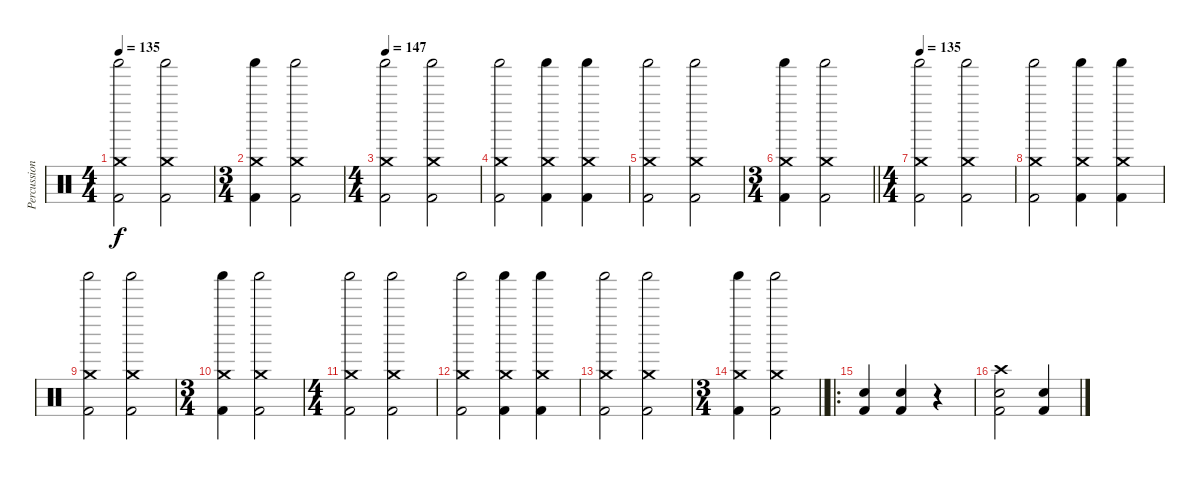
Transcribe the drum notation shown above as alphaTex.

\track ("Percussioni" "Percussion") {instrument percussion}
\staff {score}
\articulation defaults
\ts (4 4)
\tempo 135
\clef neutral
\ks c
("Kick (hit) 2" "Shaker (hit)" "Crash medium (hit)").2{dy f} ("Kick (hit) 2" "Shaker (hit)" "Crash medium (hit)").2 |
\ts (3 4)
("Kick (hit) 2" "Shaker (hit)" "Crash medium (hit)").4 ("Kick (hit) 2" "Shaker (hit)" "Crash medium (hit)").2 |
\ts (4 4)
\tempo 147
("Kick (hit) 2" "Shaker (hit)" "Crash medium (hit)").2 ("Kick (hit) 2" "Shaker (hit)" "Crash medium (hit)").2 |
("Kick (hit) 2" "Shaker (hit)" "Crash medium (hit)").2 ("Kick (hit) 2" "Shaker (hit)" "Crash medium (hit)").4 ("Kick (hit) 2" "Shaker (hit)" "Crash medium (hit)").4 |
("Kick (hit) 2" "Shaker (hit)" "Crash medium (hit)").2 ("Kick (hit) 2" "Shaker (hit)" "Crash medium (hit)").2 |
\ts (3 4)
\barLineRight lightlight
("Kick (hit) 2" "Shaker (hit)" "Crash medium (hit)").4 ("Kick (hit) 2" "Shaker (hit)" "Crash medium (hit)").2 |
\ts (4 4)
\tempo 135
("Kick (hit) 2" "Shaker (hit)" "Crash medium (hit)").2 ("Kick (hit) 2" "Shaker (hit)" "Crash medium (hit)").2 |
("Kick (hit) 2" "Shaker (hit)" "Crash medium (hit)").2 ("Kick (hit) 2" "Shaker (hit)" "Crash medium (hit)").4 ("Kick (hit) 2" "Shaker (hit)" "Crash medium (hit)").4 |
("Kick (hit) 2" "Shaker (hit)" "Crash medium (hit)").2 ("Kick (hit) 2" "Shaker (hit)" "Crash medium (hit)").2 |
\ts (3 4)
("Kick (hit) 2" "Shaker (hit)" "Crash medium (hit)").4 ("Kick (hit) 2" "Shaker (hit)" "Crash medium (hit)").2 |
\ts (4 4)
("Kick (hit) 2" "Shaker (hit)" "Crash medium (hit)").2 ("Kick (hit) 2" "Shaker (hit)" "Crash medium (hit)").2 |
("Kick (hit) 2" "Shaker (hit)" "Crash medium (hit)").2 ("Kick (hit) 2" "Shaker (hit)" "Crash medium (hit)").4 ("Kick (hit) 2" "Shaker (hit)" "Crash medium (hit)").4 |
("Kick (hit) 2" "Shaker (hit)" "Crash medium (hit)").2 ("Kick (hit) 2" "Shaker (hit)" "Crash medium (hit)").2 |
\ts (3 4)
\barLineRight lightlight
("Kick (hit) 2" "Shaker (hit)" "Crash medium (hit)").4 ("Kick (hit) 2" "Shaker (hit)" "Crash medium (hit)").2 |
\ro
("Kick (hit) 2" "Snare (hit) 2").4 ("Kick (hit) 2" "Snare (hit) 2").4 r.4 |
("Crash high (hit)" "Kick (hit) 2" "Snare (hit) 2").2 ("Kick (hit) 2" "Snare (hit) 2").4
